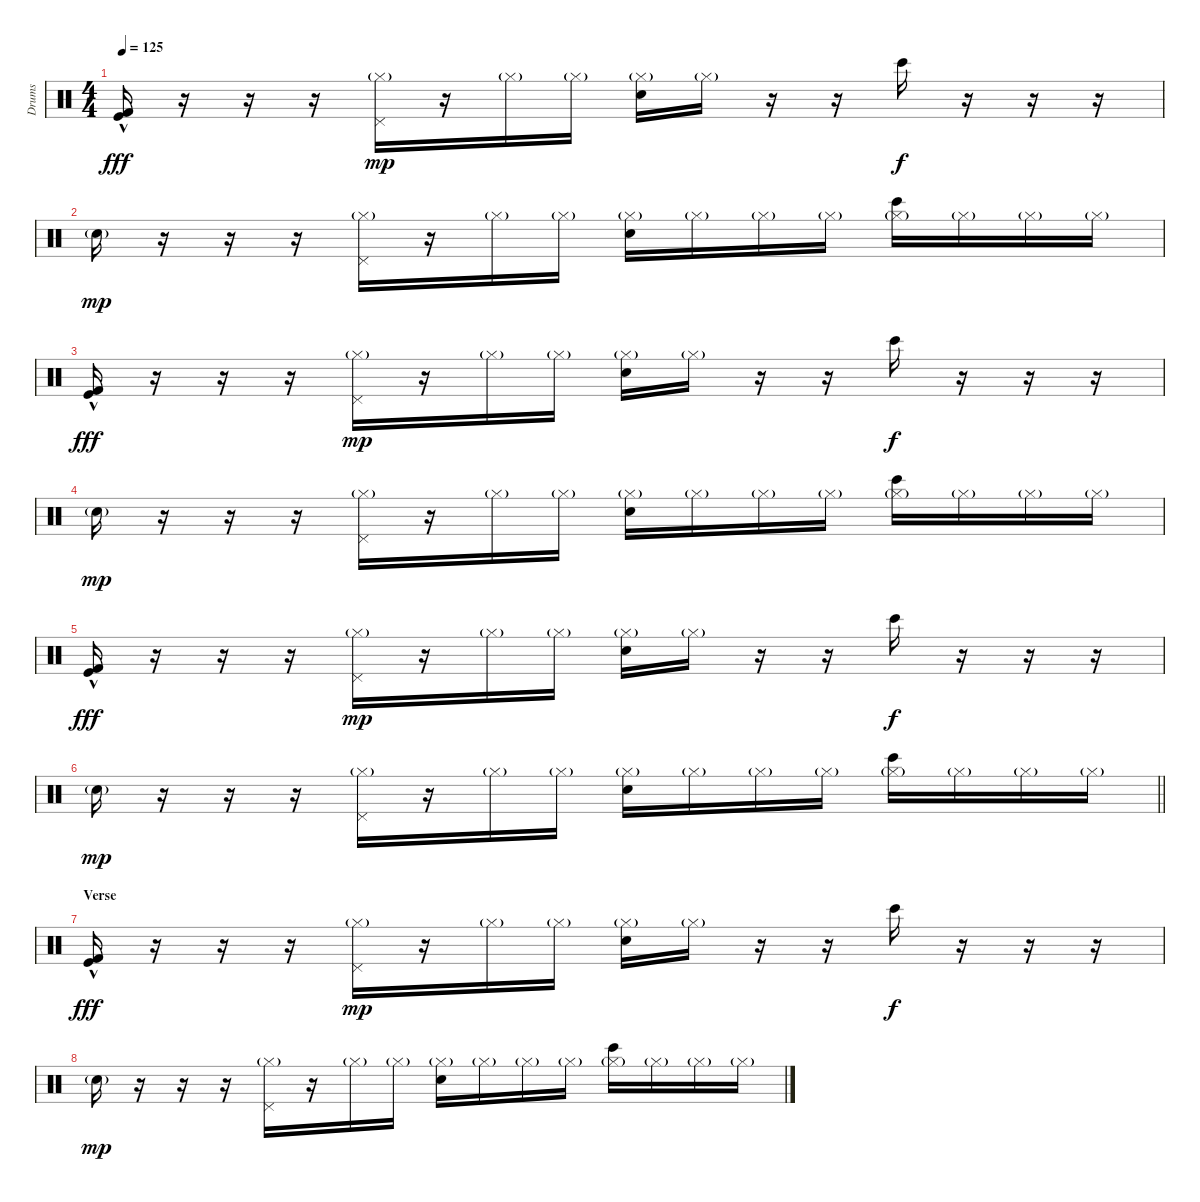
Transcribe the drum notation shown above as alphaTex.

\track ("Drums" "Drums") {instrument percussion}
\staff {score}
\articulation defaults
\ts (4 4)
\tempo 125
\clef neutral
\ks c
("Kick (hit)"{hac} "Kick (hit) 2"{hac}).16{dy fff volume 16} r.16{volume 10} r.16 r.16 ("Hi-Hat (closed)"{g} "Pedal Hi-Hat (hit)").16{dy mp} r.16 "Hi-Hat (closed)"{g}.16 "Hi-Hat (closed)"{g}.16 ("Hi-Hat (closed)"{g} "Hand Clap (hit)").16 "Hi-Hat (closed)"{g}.16 r.16 r.16 "Bongo High (hit)".16{dy f} r.16 r.16 r.16 |
"Electric Snare (hit)"{g}.16{dy mp} r.16 r.16 r.16 ("Hi-Hat (closed)"{g} "Pedal Hi-Hat (hit)").16 r.16 "Hi-Hat (closed)"{g}.16 "Hi-Hat (closed)"{g}.16 ("Hi-Hat (closed)"{g} "Hand Clap (hit)").16 "Hi-Hat (closed)"{g}.16 "Hi-Hat (closed)"{g}.16 "Hi-Hat (closed)"{g}.16 ("Hi-Hat (closed)"{g} "Bongo High (hit)").16 "Hi-Hat (closed)"{g}.16 "Hi-Hat (closed)"{g}.16 "Hi-Hat (closed)"{g}.16 |
("Kick (hit)"{hac} "Kick (hit) 2"{hac}).16{dy fff volume 16} r.16{volume 10} r.16 r.16 ("Hi-Hat (closed)"{g} "Pedal Hi-Hat (hit)").16{dy mp} r.16 "Hi-Hat (closed)"{g}.16 "Hi-Hat (closed)"{g}.16 ("Hi-Hat (closed)"{g} "Hand Clap (hit)").16 "Hi-Hat (closed)"{g}.16 r.16 r.16 "Bongo High (hit)".16{dy f} r.16 r.16 r.16 |
"Electric Snare (hit)"{g}.16{dy mp} r.16 r.16 r.16 ("Hi-Hat (closed)"{g} "Pedal Hi-Hat (hit)").16 r.16 "Hi-Hat (closed)"{g}.16 "Hi-Hat (closed)"{g}.16 ("Hi-Hat (closed)"{g} "Hand Clap (hit)").16 "Hi-Hat (closed)"{g}.16 "Hi-Hat (closed)"{g}.16 "Hi-Hat (closed)"{g}.16 ("Hi-Hat (closed)"{g} "Bongo High (hit)").16 "Hi-Hat (closed)"{g}.16 "Hi-Hat (closed)"{g}.16 "Hi-Hat (closed)"{g}.16 |
("Kick (hit)"{hac} "Kick (hit) 2"{hac}).16{dy fff volume 16} r.16{volume 10} r.16 r.16 ("Hi-Hat (closed)"{g} "Pedal Hi-Hat (hit)").16{dy mp} r.16 "Hi-Hat (closed)"{g}.16 "Hi-Hat (closed)"{g}.16 ("Hi-Hat (closed)"{g} "Hand Clap (hit)").16 "Hi-Hat (closed)"{g}.16 r.16 r.16 "Bongo High (hit)".16{dy f} r.16 r.16 r.16 |
\barLineRight lightlight "Electric Snare (hit)"{g}.16{dy mp}
r.16 r.16 r.16 ("Hi-Hat (closed)"{g} "Pedal Hi-Hat (hit)").16 r.16 "Hi-Hat (closed)"{g}.16 "Hi-Hat (closed)"{g}.16 ("Hi-Hat (closed)"{g} "Hand Clap (hit)").16 "Hi-Hat (closed)"{g}.16 "Hi-Hat (closed)"{g}.16 "Hi-Hat (closed)"{g}.16 ("Hi-Hat (closed)"{g} "Bongo High (hit)").16 "Hi-Hat (closed)"{g}.16 "Hi-Hat (closed)"{g}.16 "Hi-Hat (closed)"{g}.16 |
\section ("" "Verse")
("Kick (hit)"{hac} "Kick (hit) 2"{hac}).16{dy fff volume 16} r.16{volume 10} r.16 r.16 ("Hi-Hat (closed)"{g} "Pedal Hi-Hat (hit)").16{dy mp} r.16 "Hi-Hat (closed)"{g}.16 "Hi-Hat (closed)"{g}.16 ("Hi-Hat (closed)"{g} "Hand Clap (hit)").16 "Hi-Hat (closed)"{g}.16 r.16 r.16 "Bongo High (hit)".16{dy f} r.16 r.16 r.16 |
"Electric Snare (hit)"{g}.16{dy mp} r.16 r.16 r.16 ("Hi-Hat (closed)"{g} "Pedal Hi-Hat (hit)").16 r.16 "Hi-Hat (closed)"{g}.16 "Hi-Hat (closed)"{g}.16 ("Hi-Hat (closed)"{g} "Hand Clap (hit)").16 "Hi-Hat (closed)"{g}.16 "Hi-Hat (closed)"{g}.16 "Hi-Hat (closed)"{g}.16 ("Hi-Hat (closed)"{g} "Bongo High (hit)").16 "Hi-Hat (closed)"{g}.16 "Hi-Hat (closed)"{g}.16 "Hi-Hat (closed)"{g}.16
